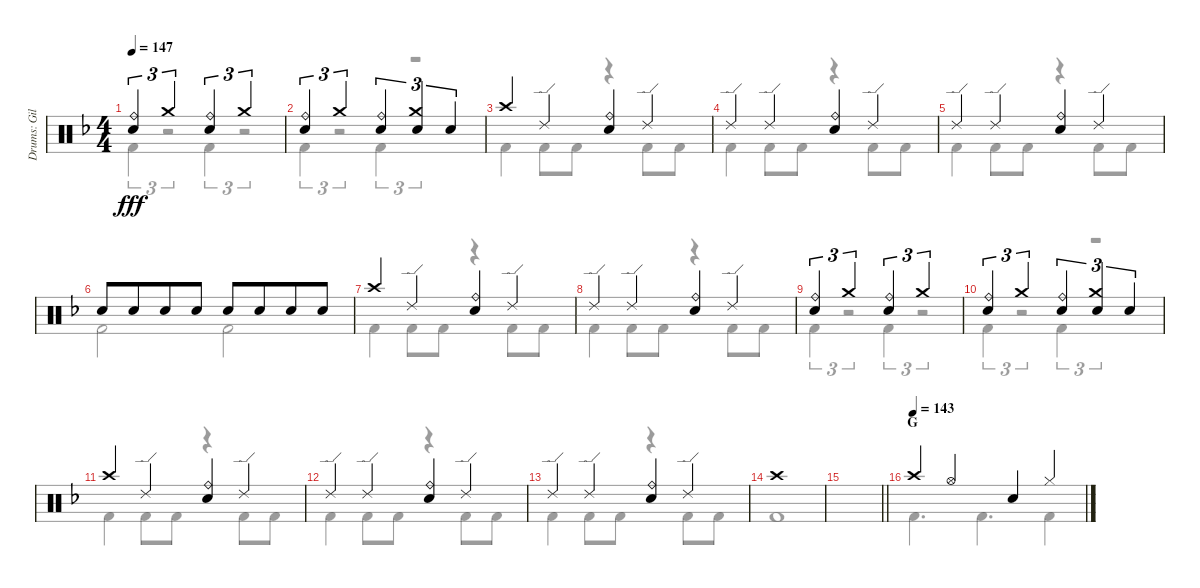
\track ("Drums: Gil" "Drums: Gil") {instrument percussion}
\staff {score}
\articulation defaults
\voice
\ts (4 4)
\tempo 147
\clef neutral
\ks f
("Ride (bell)" "Snare (hit) 2").4{tu (3 2) dy fff} "Crash medium (hit)".2{tu (3 2)} ("Ride (bell)" "Snare (hit) 2").4{tu (3 2)} "Crash medium (hit)".2{tu (3 2)} |
("Ride (bell)" "Snare (hit) 2").4{tu (3 2)} "Crash medium (hit)".2{tu (3 2)} ("Ride (bell)" "Snare (hit) 2").4{tu (3 2)} ("Crash medium (hit)" "Snare (hit) 2").4{tu (3 2)} "Snare (hit) 2".4{tu (3 2)} |
"Crash high (hit)".4 "Ride (edge) 2".4 ("Ride (bell)" "Snare (hit) 2").4 "Ride (edge) 2".4 |
"Ride (edge) 2".4 "Ride (edge) 2".4 ("Ride (bell)" "Snare (hit) 2").4 "Ride (edge) 2".4 |
"Ride (edge) 2".4 "Ride (edge) 2".4 ("Ride (bell)" "Snare (hit) 2").4 "Ride (edge) 2".4 |
"Snare (hit) 2".8 "Snare (hit) 2".8{beam merge} "Snare (hit) 2".8 "Snare (hit) 2".8 "Snare (hit) 2".8 "Snare (hit) 2".8{beam merge} "Snare (hit) 2".8 "Snare (hit) 2".8 |
"Crash high (hit)".4 "Ride (edge) 2".4 ("Ride (bell)" "Snare (hit) 2").4 "Ride (edge) 2".4 |
"Ride (edge) 2".4 "Ride (edge) 2".4 ("Ride (bell)" "Snare (hit) 2").4 "Ride (edge) 2".4 |
("Ride (bell)" "Snare (hit) 2").4{tu (3 2)} "Crash medium (hit)".2{tu (3 2)} ("Ride (bell)" "Snare (hit) 2").4{tu (3 2)} "Crash medium (hit)".2{tu (3 2)} |
("Ride (bell)" "Snare (hit) 2").4{tu (3 2)} "Crash medium (hit)".2{tu (3 2)} ("Ride (bell)" "Snare (hit) 2").4{tu (3 2)} ("Crash medium (hit)" "Snare (hit) 2").4{tu (3 2)} "Snare (hit) 2".4{tu (3 2)} |
"Crash high (hit)".4 "Ride (edge) 2".4 ("Ride (bell)" "Snare (hit) 2").4 "Ride (edge) 2".4 |
"Ride (edge) 2".4 "Ride (edge) 2".4 ("Ride (bell)" "Snare (hit) 2").4 "Ride (edge) 2".4 |
"Ride (edge) 2".4 "Ride (edge) 2".4 ("Ride (bell)" "Snare (hit) 2").4 "Ride (edge) 2".4 |
"Crash high (hit)".1 |
\barLineRight lightlight
|
\section ("" "G")
\tempo (143)
"Crash high (hit)".4 "Hi-Hat (open)".4 "Snare (hit) 2".4 "Hi-Hat (closed)".4
\voice
\clef neutral
\ottava regular
\simile none
\ks f "Kick (hit) 2".4{tu (3 2) dy fff}
r.2{tu (3 2)} "Kick (hit) 2".4{tu (3 2)} r.2{tu (3 2)} |
"Kick (hit) 2".4{tu (3 2)} r.2{tu (3 2)} "Kick (hit) 2".4{tu (3 2)} r.2{tu (3 2)} |
"Kick (hit) 2".4 "Kick (hit) 2".8 "Kick (hit) 2".8 r.4 "Kick (hit) 2".8 "Kick (hit) 2".8 |
"Kick (hit) 2".4 "Kick (hit) 2".8 "Kick (hit) 2".8 r.4 "Kick (hit) 2".8 "Kick (hit) 2".8 |
"Kick (hit) 2".4 "Kick (hit) 2".8 "Kick (hit) 2".8 r.4 "Kick (hit) 2".8 "Kick (hit) 2".8 |
"Kick (hit) 2".2 "Kick (hit) 2".2 |
"Kick (hit) 2".4 "Kick (hit) 2".8 "Kick (hit) 2".8 r.4 "Kick (hit) 2".8 "Kick (hit) 2".8 |
"Kick (hit) 2".4 "Kick (hit) 2".8 "Kick (hit) 2".8 r.4 "Kick (hit) 2".8 "Kick (hit) 2".8 |
"Kick (hit) 2".4{tu (3 2)} r.2{tu (3 2)} "Kick (hit) 2".4{tu (3 2)} r.2{tu (3 2)} |
"Kick (hit) 2".4{tu (3 2)} r.2{tu (3 2)} "Kick (hit) 2".4{tu (3 2)} r.2{tu (3 2)} |
"Kick (hit) 2".4 "Kick (hit) 2".8 "Kick (hit) 2".8 r.4 "Kick (hit) 2".8 "Kick (hit) 2".8 |
"Kick (hit) 2".4 "Kick (hit) 2".8 "Kick (hit) 2".8 r.4 "Kick (hit) 2".8 "Kick (hit) 2".8 |
"Kick (hit) 2".4 "Kick (hit) 2".8 "Kick (hit) 2".8 r.4 "Kick (hit) 2".8 "Kick (hit) 2".8 |
"Kick (hit) 2".1 |
\barLineRight lightlight
|
"Kick (hit) 2".4{d} "Kick (hit) 2".4{d} "Kick (hit) 2".4
